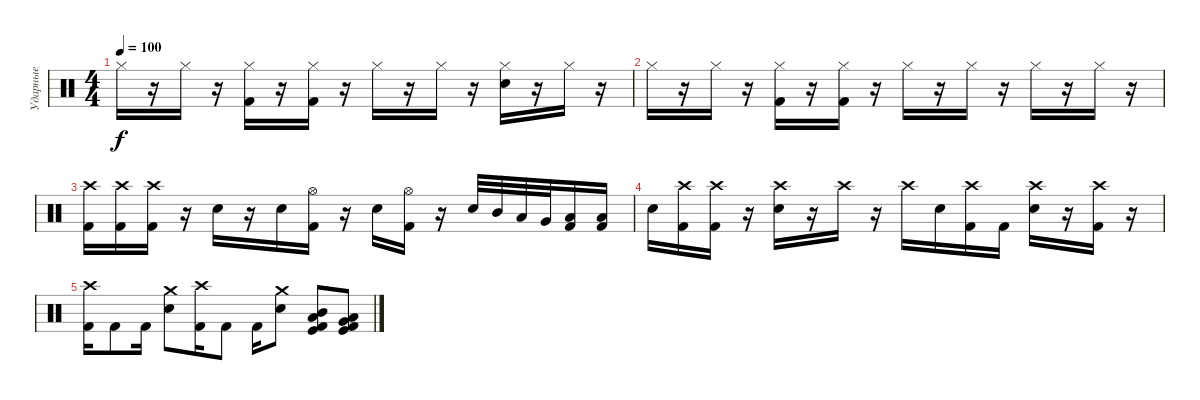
\track ("Ударные" "Ударные") {instrument percussion}
\staff {score}
\articulation defaults
\ts (4 4)
\tempo 100
\clef neutral
\ks c "Hi-Hat (closed)".16{dy f}
r.16 "Hi-Hat (closed)".16 r.16 ("Hi-Hat (closed)" "Kick (hit) 2").16 r.16 ("Hi-Hat (closed)" "Kick (hit) 2").16 r.16 "Hi-Hat (closed)".16 r.16 "Hi-Hat (closed)".16 r.16 ("Hi-Hat (closed)" "Snare (hit) 2").16 r.16 "Hi-Hat (closed)".16 r.16 |
"Hi-Hat (closed)".16 r.16 "Hi-Hat (closed)".16 r.16 ("Hi-Hat (closed)" "Kick (hit) 2").16 r.16 ("Hi-Hat (closed)" "Kick (hit) 2").16 r.16 "Hi-Hat (closed)".16 r.16 "Hi-Hat (closed)".16 r.16 "Hi-Hat (closed)".16 r.16 "Hi-Hat (closed)".16 r.16 |
("Crash high (hit)" "Kick (hit) 2").16 ("Crash high (hit)" "Kick (hit) 2").16 ("Crash high (hit)" "Kick (hit) 2").16 r.16 "Snare (hit) 2".16 r.16 "Snare (hit) 2".16 ("Hi-Hat (open)" "Kick (hit) 2").16 r.16 "Snare (hit) 2".16 ("Hi-Hat (open)" "Kick (hit) 2").16 r.16 "Snare (hit) 2".32 "Mid Tom (hit)".32 "Low Tom (hit)".32 "Very Low Tom (hit)".32 ("Low Floor Tom (hit)" "Kick (hit) 2").16 ("Low Floor Tom (hit)" "Kick (hit) 2").16 |
"Snare (hit) 2".16 ("Crash high (hit)" "Kick (hit) 2").16 ("Crash high (hit)" "Kick (hit) 2").16 r.16 ("Crash high (hit)" "Snare (hit) 2").16 r.16 "Crash high (hit)".16 r.16 "Crash high (hit)".16 "Snare (hit) 2".16 ("Crash high (hit)" "Kick (hit) 2").16 "Kick (hit) 2".16 ("Crash high (hit)" "Snare (hit) 2").16 r.16 ("Crash high (hit)" "Kick (hit) 2").16 r.16 |
("Crash high (hit)" "Kick (hit) 2").16 "Kick (hit) 2".8 "Kick (hit) 2".16 ("Crash medium (hit)" "Snare (hit) 2").8 ("Crash high (hit)" "Kick (hit) 2").16 "Kick (hit) 2".8 "Kick (hit) 2".16 ("Crash medium (hit)" "Snare (hit) 2").8 ("Mid Tom (hit)" "Low Tom (hit)" "Kick (hit)" "Kick (hit) 2").8 ("Kick (hit)" "Very Low Tom (hit)" "Low Floor Tom (hit)" "Kick (hit) 2").8
